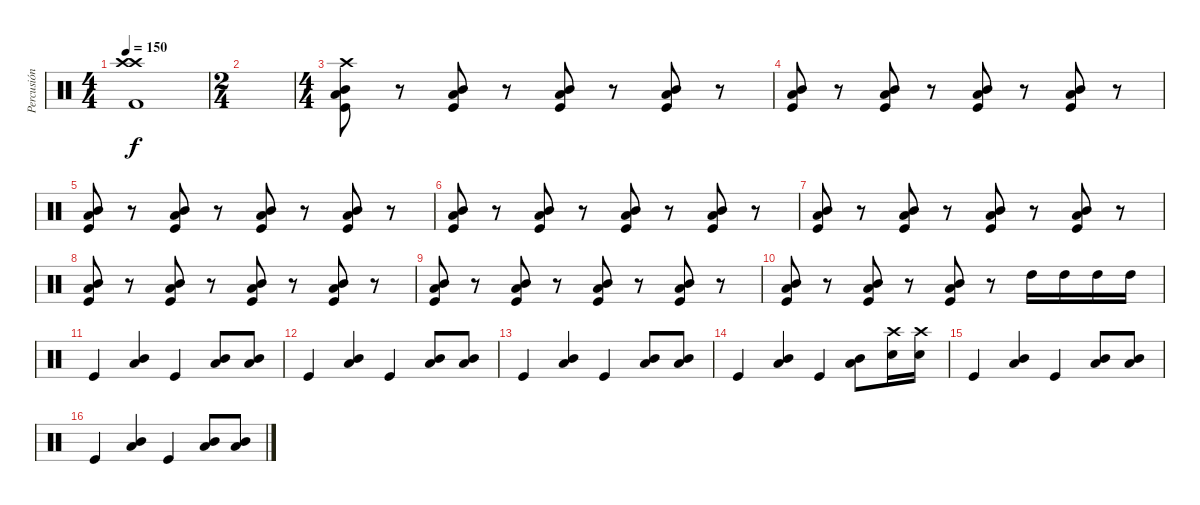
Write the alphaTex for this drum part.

\track ("Percusión" "Percusión") {instrument percussion}
\staff {score}
\articulation defaults
\ts (4 4)
\tempo 150
\clef neutral
\ks c
("Crash high (hit)" "Crash high (hit)" "Kick (hit) 2").1{dy f} |
\ts (2 4)
|
\ts (4 4)
("Crash high (hit)" "Low Tom (hit)" "Mid Tom (hit)" "Kick (hit)").8 r.8 ("Low Tom (hit)" "Mid Tom (hit)" "Kick (hit)").8 r.8 ("Low Tom (hit)" "Mid Tom (hit)" "Kick (hit)").8 r.8 ("Low Tom (hit)" "Mid Tom (hit)" "Kick (hit)").8 r.8 |
("Low Tom (hit)" "Mid Tom (hit)" "Kick (hit)").8 r.8 ("Low Tom (hit)" "Mid Tom (hit)" "Kick (hit)").8 r.8 ("Low Tom (hit)" "Mid Tom (hit)" "Kick (hit)").8 r.8 ("Low Tom (hit)" "Mid Tom (hit)" "Kick (hit)").8 r.8 |
("Low Tom (hit)" "Mid Tom (hit)" "Kick (hit)").8 r.8 ("Low Tom (hit)" "Mid Tom (hit)" "Kick (hit)").8 r.8 ("Low Tom (hit)" "Mid Tom (hit)" "Kick (hit)").8 r.8 ("Low Tom (hit)" "Mid Tom (hit)" "Kick (hit)").8 r.8 |
("Low Tom (hit)" "Mid Tom (hit)" "Kick (hit)").8 r.8 ("Low Tom (hit)" "Mid Tom (hit)" "Kick (hit)").8 r.8 ("Low Tom (hit)" "Mid Tom (hit)" "Kick (hit)").8 r.8 ("Low Tom (hit)" "Mid Tom (hit)" "Kick (hit)").8 r.8 |
("Low Tom (hit)" "Mid Tom (hit)" "Kick (hit)").8 r.8 ("Low Tom (hit)" "Mid Tom (hit)" "Kick (hit)").8 r.8 ("Low Tom (hit)" "Mid Tom (hit)" "Kick (hit)").8 r.8 ("Low Tom (hit)" "Mid Tom (hit)" "Kick (hit)").8 r.8 |
("Low Tom (hit)" "Mid Tom (hit)" "Kick (hit)").8 r.8 ("Low Tom (hit)" "Mid Tom (hit)" "Kick (hit)").8 r.8 ("Low Tom (hit)" "Mid Tom (hit)" "Kick (hit)").8 r.8 ("Low Tom (hit)" "Mid Tom (hit)" "Kick (hit)").8 r.8 |
("Low Tom (hit)" "Mid Tom (hit)" "Kick (hit)").8 r.8 ("Low Tom (hit)" "Mid Tom (hit)" "Kick (hit)").8 r.8 ("Low Tom (hit)" "Mid Tom (hit)" "Kick (hit)").8 r.8 ("Low Tom (hit)" "Mid Tom (hit)" "Kick (hit)").8 r.8 |
("Low Tom (hit)" "Mid Tom (hit)" "Kick (hit)").8 r.8 ("Low Tom (hit)" "Mid Tom (hit)" "Kick (hit)").8 r.8 ("Low Tom (hit)" "Mid Tom (hit)" "Kick (hit)").8 r.8 "High Tom (hit)".16 "High Tom (hit)".16 "High Tom (hit)".16 "High Tom (hit)".16 |
"Kick (hit)".4 ("Low Tom (hit)" "Mid Tom (hit)").4 "Kick (hit)".4 ("Low Tom (hit)" "Mid Tom (hit)").8 ("Low Tom (hit)" "Mid Tom (hit)").8 |
"Kick (hit)".4 ("Low Tom (hit)" "Mid Tom (hit)").4 "Kick (hit)".4 ("Low Tom (hit)" "Mid Tom (hit)").8 ("Low Tom (hit)" "Mid Tom (hit)").8 |
"Kick (hit)".4 ("Low Tom (hit)" "Mid Tom (hit)").4 "Kick (hit)".4 ("Low Tom (hit)" "Mid Tom (hit)").8 ("Low Tom (hit)" "Mid Tom (hit)").8 |
"Kick (hit)".4 ("Low Tom (hit)" "Mid Tom (hit)").4 "Kick (hit)".4 ("Low Tom (hit)" "Mid Tom (hit)").8 ("Crash high (hit)" "Electric Snare (hit)").16 ("Crash high (hit)" "Electric Snare (hit)").16 |
"Kick (hit)".4 ("Low Tom (hit)" "Mid Tom (hit)").4 "Kick (hit)".4 ("Low Tom (hit)" "Mid Tom (hit)").8 ("Low Tom (hit)" "Mid Tom (hit)").8 |
"Kick (hit)".4 ("Low Tom (hit)" "Mid Tom (hit)").4 "Kick (hit)".4 ("Low Tom (hit)" "Mid Tom (hit)").8 ("Low Tom (hit)" "Mid Tom (hit)").8
